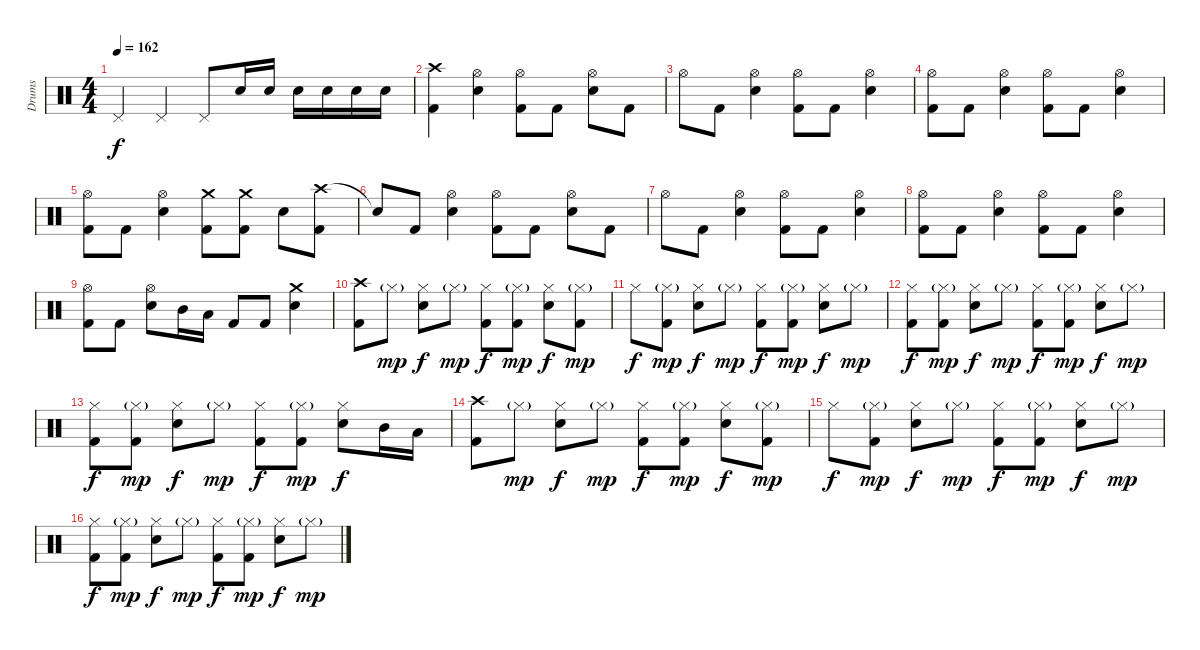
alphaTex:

\track ("Drums" "Drums") {instrument percussion}
\staff {score}
\articulation defaults
\ts (4 4)
\tempo 162
\clef neutral
\ks c "Pedal Hi-Hat (hit)".4{dy f} "Pedal Hi-Hat (hit)".4 "Pedal Hi-Hat (hit)".8 "Snare (hit) 2".16 "Snare (hit) 2".16 "Snare (hit) 2".16 "Snare (hit) 2".16 "Snare (hit) 2".16 "Snare (hit) 2".16
|
("Crash high (hit)" "Kick (hit) 2").4 ("Hi-Hat (open)" "Snare (hit) 2").4 ("Hi-Hat (open)" "Kick (hit) 2").8 "Kick (hit) 2".8 ("Hi-Hat (open)" "Snare (hit) 2").8 "Kick (hit) 2".8 |
"Hi-Hat (open)".8 "Kick (hit) 2".8 ("Hi-Hat (open)" "Snare (hit) 2").4 ("Hi-Hat (open)" "Kick (hit) 2").8 "Kick (hit) 2".8 ("Hi-Hat (open)" "Snare (hit) 2").4 |
("Hi-Hat (open)" "Kick (hit) 2").8 "Kick (hit) 2".8 ("Hi-Hat (open)" "Snare (hit) 2").4 ("Hi-Hat (open)" "Kick (hit) 2").8 "Kick (hit) 2".8 ("Hi-Hat (open)" "Snare (hit) 2").4 |
("Hi-Hat (open)" "Kick (hit) 2").8 "Kick (hit) 2".8 ("Hi-Hat (open)" "Snare (hit) 2").4 ("Crash medium (hit)" "Kick (hit) 2").8 ("Crash medium (hit)" "Kick (hit) 2").8 "Snare (hit) 2".8 ("Crash high (hit)" "Kick (hit) 2").8 |
"Snare (hit)"{t}.8 "Kick (hit) 2".8 ("Hi-Hat (open)" "Snare (hit) 2").4 ("Hi-Hat (open)" "Kick (hit) 2").8 "Kick (hit) 2".8 ("Hi-Hat (open)" "Snare (hit) 2").8 "Kick (hit) 2".8 |
"Hi-Hat (open)".8 "Kick (hit) 2".8 ("Hi-Hat (open)" "Snare (hit) 2").4 ("Hi-Hat (open)" "Kick (hit) 2").8 "Kick (hit) 2".8 ("Hi-Hat (open)" "Snare (hit) 2").4 |
("Hi-Hat (open)" "Kick (hit) 2").8 "Kick (hit) 2".8 ("Hi-Hat (open)" "Snare (hit) 2").4 ("Hi-Hat (open)" "Kick (hit) 2").8 "Kick (hit) 2".8 ("Hi-Hat (open)" "Snare (hit) 2").4 |
("Hi-Hat (open)" "Kick (hit) 2").8 "Kick (hit) 2".8 ("Hi-Hat (open)" "Snare (hit) 2").8 "Mid Tom (hit)".16 "Low Tom (hit)".16 "Kick (hit) 2".8 "Kick (hit) 2".8 ("Crash medium (hit)" "Snare (hit) 2").4 |
("Crash high (hit)" "Kick (hit) 2").8 "Hi-Hat (closed)"{g}.8{dy mp} ("Hi-Hat (closed)" "Snare (hit) 2").8{dy f} "Hi-Hat (closed)"{g}.8{dy mp} ("Hi-Hat (closed)" "Kick (hit) 2").8{dy f} ("Hi-Hat (closed)"{g} "Kick (hit) 2").8{dy mp} ("Hi-Hat (closed)" "Snare (hit) 2").8{dy f} ("Hi-Hat (closed)"{g} "Kick (hit) 2").8{dy mp} |
"Hi-Hat (closed)".8{dy f} ("Hi-Hat (closed)"{g} "Kick (hit) 2").8{dy mp} ("Hi-Hat (closed)" "Snare (hit) 2").8{dy f} "Hi-Hat (closed)"{g}.8{dy mp} ("Hi-Hat (closed)" "Kick (hit) 2").8{dy f} ("Hi-Hat (closed)"{g} "Kick (hit) 2").8{dy mp} ("Hi-Hat (closed)" "Snare (hit) 2").8{dy f} "Hi-Hat (closed)"{g}.8{dy mp} |
("Hi-Hat (closed)" "Kick (hit) 2").8{dy f} ("Hi-Hat (closed)"{g} "Kick (hit) 2").8{dy mp} ("Hi-Hat (closed)" "Snare (hit) 2").8{dy f} "Hi-Hat (closed)"{g}.8{dy mp} ("Hi-Hat (closed)" "Kick (hit) 2").8{dy f} ("Hi-Hat (closed)"{g} "Kick (hit) 2").8{dy mp} ("Hi-Hat (closed)" "Snare (hit) 2").8{dy f} "Hi-Hat (closed)"{g}.8{dy mp} |
("Hi-Hat (closed)" "Kick (hit) 2").8{dy f} ("Hi-Hat (closed)"{g} "Kick (hit) 2").8{dy mp} ("Hi-Hat (closed)" "Snare (hit) 2").8{dy f} "Hi-Hat (closed)"{g}.8{dy mp} ("Hi-Hat (closed)" "Kick (hit) 2").8{dy f} ("Hi-Hat (closed)"{g} "Kick (hit) 2").8{dy mp} ("Hi-Hat (closed)" "Snare (hit) 2").8{dy f} "Mid Tom (hit)".16 "Low Tom (hit)".16 |
("Crash high (hit)" "Kick (hit) 2").8 "Hi-Hat (closed)"{g}.8{dy mp} ("Hi-Hat (closed)" "Snare (hit) 2").8{dy f} "Hi-Hat (closed)"{g}.8{dy mp} ("Hi-Hat (closed)" "Kick (hit) 2").8{dy f} ("Hi-Hat (closed)"{g} "Kick (hit) 2").8{dy mp} ("Hi-Hat (closed)" "Snare (hit) 2").8{dy f} ("Hi-Hat (closed)"{g} "Kick (hit) 2").8{dy mp} |
"Hi-Hat (closed)".8{dy f} ("Hi-Hat (closed)"{g} "Kick (hit) 2").8{dy mp} ("Hi-Hat (closed)" "Snare (hit) 2").8{dy f} "Hi-Hat (closed)"{g}.8{dy mp} ("Hi-Hat (closed)" "Kick (hit) 2").8{dy f} ("Hi-Hat (closed)"{g} "Kick (hit) 2").8{dy mp} ("Hi-Hat (closed)" "Snare (hit) 2").8{dy f} "Hi-Hat (closed)"{g}.8{dy mp} |
("Hi-Hat (closed)" "Kick (hit) 2").8{dy f} ("Hi-Hat (closed)"{g} "Kick (hit) 2").8{dy mp} ("Hi-Hat (closed)" "Snare (hit) 2").8{dy f} "Hi-Hat (closed)"{g}.8{dy mp} ("Hi-Hat (closed)" "Kick (hit) 2").8{dy f} ("Hi-Hat (closed)"{g} "Kick (hit) 2").8{dy mp} ("Hi-Hat (closed)" "Snare (hit) 2").8{dy f} "Hi-Hat (closed)"{g}.8{dy mp}
